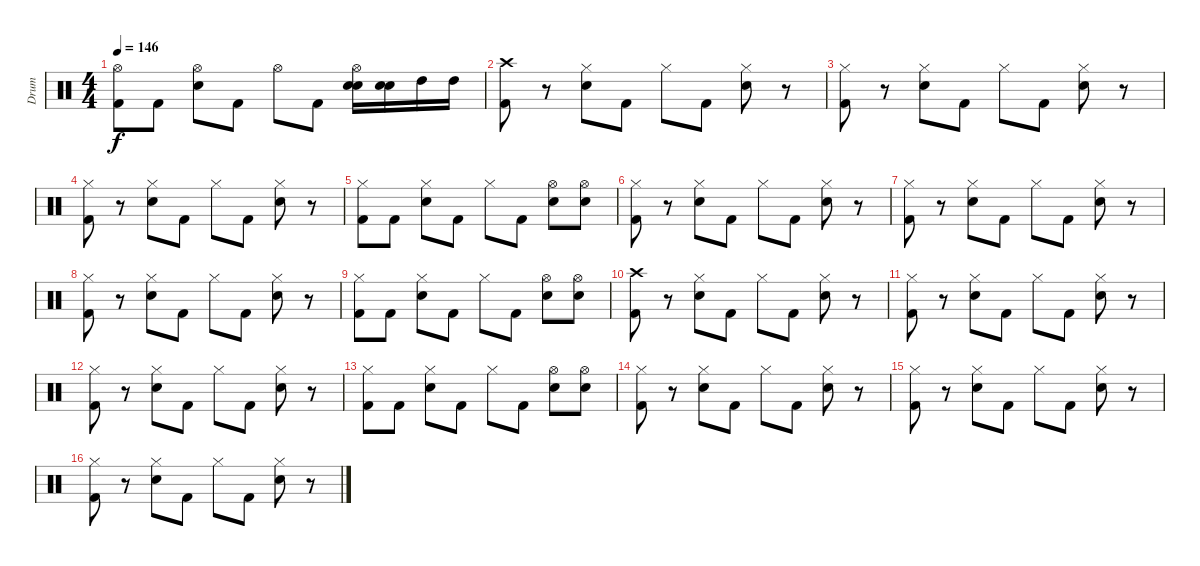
\track ("Drum" "Drum") {instrument percussion}
\staff {score}
\articulation defaults
\ts (4 4)
\tempo 146
\clef neutral
\ks c
("Hi-Hat (open)" "Kick (hit) 2").8{dy f} "Kick (hit) 2".8 ("Hi-Hat (open)" "Electric Snare (hit)").8 "Kick (hit) 2".8 "Hi-Hat (open)".8 "Kick (hit) 2".8 ("Hi-Hat (open)" "Electric Snare (hit)" "Electric Snare (hit)").16 ("Electric Snare (hit)" "Electric Snare (hit)").16 "High Tom (hit)".16 "High Tom (hit)".16 |
("Crash high (hit)" "Kick (hit) 2").8 r.8 ("Hi-Hat (closed)" "Electric Snare (hit)").8 "Kick (hit) 2".8 "Hi-Hat (closed)".8 "Kick (hit) 2".8 ("Hi-Hat (closed)" "Electric Snare (hit)").8 r.8 |
("Hi-Hat (closed)" "Kick (hit) 2").8 r.8 ("Hi-Hat (closed)" "Electric Snare (hit)").8 "Kick (hit) 2".8 "Hi-Hat (closed)".8 "Kick (hit) 2".8 ("Hi-Hat (closed)" "Electric Snare (hit)").8 r.8 |
("Hi-Hat (closed)" "Kick (hit) 2").8 r.8 ("Hi-Hat (closed)" "Electric Snare (hit)").8 "Kick (hit) 2".8 "Hi-Hat (closed)".8 "Kick (hit) 2".8 ("Hi-Hat (closed)" "Electric Snare (hit)").8 r.8 |
("Hi-Hat (closed)" "Kick (hit) 2").8 "Kick (hit) 2".8 ("Hi-Hat (closed)" "Electric Snare (hit)").8 "Kick (hit) 2".8 "Hi-Hat (closed)".8 "Kick (hit) 2".8 ("Hi-Hat (open)" "Electric Snare (hit)").8 ("Hi-Hat (open)" "Electric Snare (hit)").8 |
("Hi-Hat (closed)" "Kick (hit) 2").8 r.8 ("Hi-Hat (closed)" "Electric Snare (hit)").8 "Kick (hit) 2".8 "Hi-Hat (closed)".8 "Kick (hit) 2".8 ("Hi-Hat (closed)" "Electric Snare (hit)").8 r.8 |
("Hi-Hat (closed)" "Kick (hit) 2").8 r.8 ("Hi-Hat (closed)" "Electric Snare (hit)").8 "Kick (hit) 2".8 "Hi-Hat (closed)".8 "Kick (hit) 2".8 ("Hi-Hat (closed)" "Electric Snare (hit)").8 r.8 |
("Hi-Hat (closed)" "Kick (hit) 2").8 r.8 ("Hi-Hat (closed)" "Electric Snare (hit)").8 "Kick (hit) 2".8 "Hi-Hat (closed)".8 "Kick (hit) 2".8 ("Hi-Hat (closed)" "Electric Snare (hit)").8 r.8 |
("Hi-Hat (closed)" "Kick (hit) 2").8 "Kick (hit) 2".8 ("Hi-Hat (closed)" "Electric Snare (hit)").8 "Kick (hit) 2".8 "Hi-Hat (closed)".8 "Kick (hit) 2".8 ("Hi-Hat (open)" "Electric Snare (hit)").8 ("Hi-Hat (open)" "Electric Snare (hit)").8 |
("Crash high (hit)" "Kick (hit) 2").8 r.8 ("Hi-Hat (closed)" "Electric Snare (hit)").8 "Kick (hit) 2".8 "Hi-Hat (closed)".8 "Kick (hit) 2".8 ("Hi-Hat (closed)" "Electric Snare (hit)").8 r.8 |
("Hi-Hat (closed)" "Kick (hit) 2").8 r.8 ("Hi-Hat (closed)" "Electric Snare (hit)").8 "Kick (hit) 2".8 "Hi-Hat (closed)".8 "Kick (hit) 2".8 ("Hi-Hat (closed)" "Electric Snare (hit)").8 r.8 |
("Hi-Hat (closed)" "Kick (hit) 2").8 r.8 ("Hi-Hat (closed)" "Electric Snare (hit)").8 "Kick (hit) 2".8 "Hi-Hat (closed)".8 "Kick (hit) 2".8 ("Hi-Hat (closed)" "Electric Snare (hit)").8 r.8 |
("Hi-Hat (closed)" "Kick (hit) 2").8 "Kick (hit) 2".8 ("Hi-Hat (closed)" "Electric Snare (hit)").8 "Kick (hit) 2".8 "Hi-Hat (closed)".8 "Kick (hit) 2".8 ("Hi-Hat (open)" "Electric Snare (hit)").8 ("Hi-Hat (open)" "Electric Snare (hit)").8 |
("Hi-Hat (closed)" "Kick (hit) 2").8 r.8 ("Hi-Hat (closed)" "Electric Snare (hit)").8 "Kick (hit) 2".8 "Hi-Hat (closed)".8 "Kick (hit) 2".8 ("Hi-Hat (closed)" "Electric Snare (hit)").8 r.8 |
("Hi-Hat (closed)" "Kick (hit) 2").8 r.8 ("Hi-Hat (closed)" "Electric Snare (hit)").8 "Kick (hit) 2".8 "Hi-Hat (closed)".8 "Kick (hit) 2".8 ("Hi-Hat (closed)" "Electric Snare (hit)").8 r.8 |
("Hi-Hat (closed)" "Kick (hit) 2").8 r.8 ("Hi-Hat (closed)" "Electric Snare (hit)").8 "Kick (hit) 2".8 "Hi-Hat (closed)".8 "Kick (hit) 2".8 ("Hi-Hat (closed)" "Electric Snare (hit)").8 r.8
